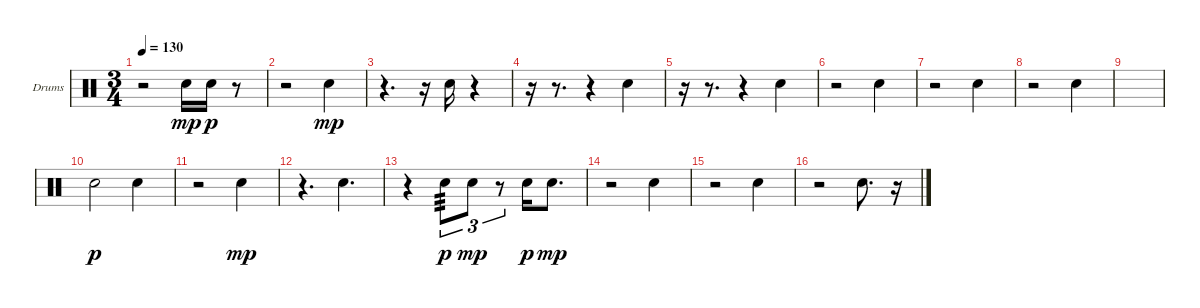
\bracketExtendMode groupsimilarinstruments
\firstSystemTrackNameOrientation horizontal
\otherSystemsTrackNameOrientation horizontal
\track ("Drums" "Drums") {instrument percussion}
\staff {score}
\articulation defaults
\ts (3 4)
\tempo 130
\clef neutral
\ks c
r.2{dy mp} "Snare (hit) 2".16 "Snare (hit) 2".16{dy p} r.8 |
r.2 "Snare (hit) 2".4{dy mp} |
r.4{d} r.16 "Snare (hit) 2".16 r.4 |
r.16 r.8{d} r.4 "Snare (hit) 2".4 |
r.16 r.8{d} r.4 "Snare (hit) 2".4 |
r.2 "Snare (hit) 2".4 |
r.2 "Snare (hit) 2".4 |
r.2 "Snare (hit) 2".4 |
|
"Snare (hit) 2".2{dy p} "Snare (hit) 2".4 |
r.2 "Snare (hit) 2".4{dy mp} |
r.4{d} "Snare (hit) 2".4{d} |
r.4 "Snare (hit) 2".8{tu (3 2) tp 3 dy p} "Snare (hit) 2".8{tu (3 2) dy mp} r.8{tu (3 2)} "Snare (hit) 2".16{dy p} "Snare (hit) 2".8{d dy mp} |
r.2 "Snare (hit) 2".4 |
r.2 "Snare (hit) 2".4 |
r.2 "Snare (hit) 2".8{d} r.16
